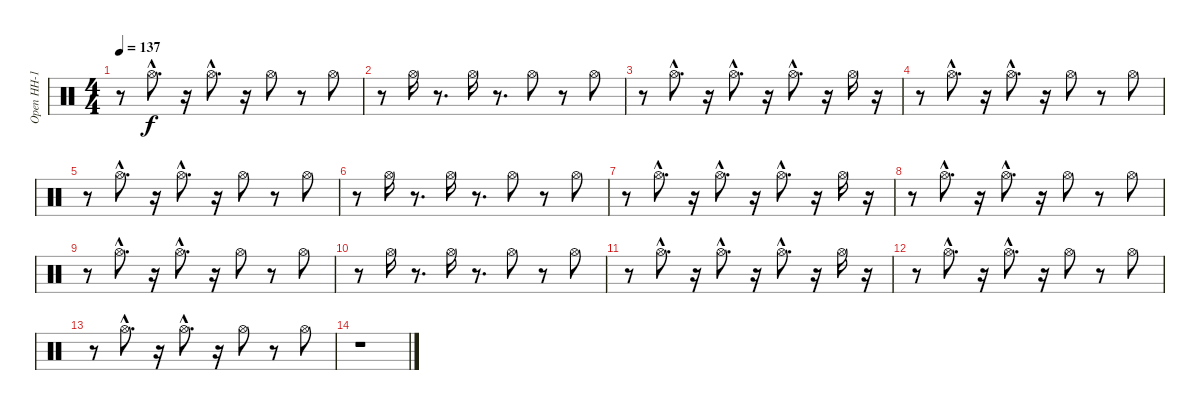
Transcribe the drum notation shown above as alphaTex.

\track ("Open HH-1" "Open HH-1") {instrument percussion}
\staff {score}
\articulation defaults
\ts (4 4)
\tempo 137
\clef neutral
\ks c
r.8{dy f} "Hi-Hat (open)"{hac}.8{d} r.16 "Hi-Hat (open)"{hac}.8{d} r.16 "Hi-Hat (open)".8 r.8 "Hi-Hat (open)".8 |
r.8 "Hi-Hat (open)".16 r.8{d} "Hi-Hat (open)".16 r.8{d} "Hi-Hat (open)".8 r.8 "Hi-Hat (open)".8 |
r.8 "Hi-Hat (open)"{hac}.8{d} r.16 "Hi-Hat (open)"{hac}.8{d} r.16 "Hi-Hat (open)"{hac}.8{d} r.16 "Hi-Hat (open)".16 r.16 |
r.8 "Hi-Hat (open)"{hac}.8{d} r.16 "Hi-Hat (open)"{hac}.8{d} r.16 "Hi-Hat (open)".8 r.8 "Hi-Hat (open)".8 |
r.8 "Hi-Hat (open)"{hac}.8{d} r.16 "Hi-Hat (open)"{hac}.8{d} r.16 "Hi-Hat (open)".8 r.8 "Hi-Hat (open)".8 |
r.8 "Hi-Hat (open)".16 r.8{d} "Hi-Hat (open)".16 r.8{d} "Hi-Hat (open)".8 r.8 "Hi-Hat (open)".8 |
r.8 "Hi-Hat (open)"{hac}.8{d} r.16 "Hi-Hat (open)"{hac}.8{d} r.16 "Hi-Hat (open)"{hac}.8{d} r.16 "Hi-Hat (open)".16 r.16 |
r.8 "Hi-Hat (open)"{hac}.8{d} r.16 "Hi-Hat (open)"{hac}.8{d} r.16 "Hi-Hat (open)".8 r.8 "Hi-Hat (open)".8 |
r.8 "Hi-Hat (open)"{hac}.8{d} r.16 "Hi-Hat (open)"{hac}.8{d} r.16 "Hi-Hat (open)".8 r.8 "Hi-Hat (open)".8 |
r.8 "Hi-Hat (open)".16 r.8{d} "Hi-Hat (open)".16 r.8{d} "Hi-Hat (open)".8 r.8 "Hi-Hat (open)".8 |
r.8 "Hi-Hat (open)"{hac}.8{d} r.16 "Hi-Hat (open)"{hac}.8{d} r.16 "Hi-Hat (open)"{hac}.8{d} r.16 "Hi-Hat (open)".16 r.16 |
r.8 "Hi-Hat (open)"{hac}.8{d} r.16 "Hi-Hat (open)"{hac}.8{d} r.16 "Hi-Hat (open)".8 r.8 "Hi-Hat (open)".8 |
r.8 "Hi-Hat (open)"{hac}.8{d} r.16 "Hi-Hat (open)"{hac}.8{d} r.16 "Hi-Hat (open)".8 r.8 "Hi-Hat (open)".8 |
r.1
